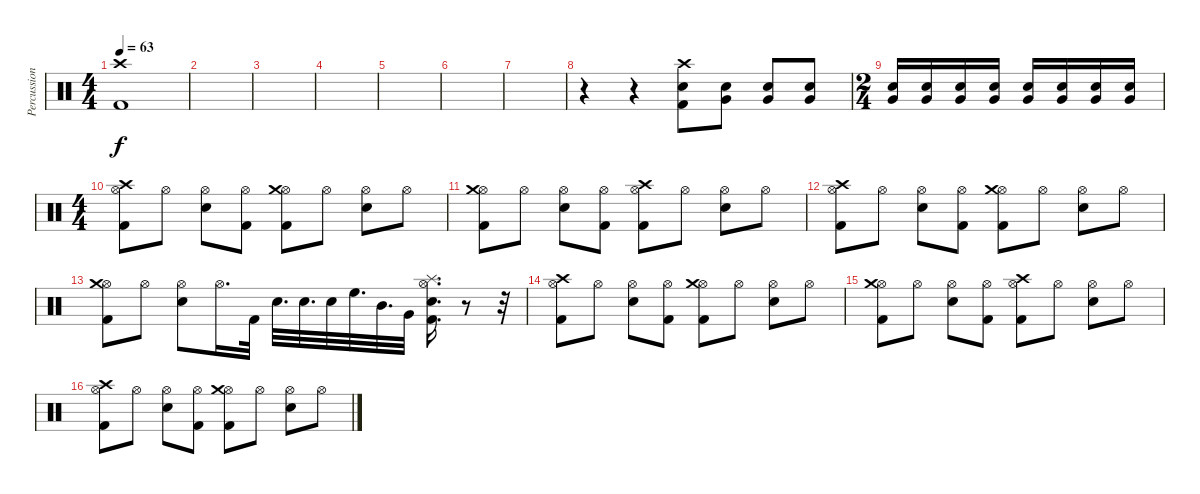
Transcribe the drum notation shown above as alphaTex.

\track ("Percussion" "Percussion") {instrument percussion}
\staff {score}
\articulation defaults
\ts (4 4)
\tempo 63
\clef neutral
\ks c
("Crash high (hit)" "Kick (hit) 2").1{dy f} |
|
|
|
|
|
|
r.4 r.4 ("Crash high (hit)" "Electric Snare (hit)" "Kick (hit) 2").8 ("Electric Snare (hit)" "Very Low Tom (hit)").8 ("Electric Snare (hit)" "Very Low Tom (hit)").8 ("Electric Snare (hit)" "Very Low Tom (hit)").8 |
\ts (2 4)
("Electric Snare (hit)" "Very Low Tom (hit)").16{volume 8} ("Electric Snare (hit)" "Very Low Tom (hit)").16{volume 16} ("Electric Snare (hit)" "Very Low Tom (hit)").16 ("Electric Snare (hit)" "Very Low Tom (hit)").16 ("Electric Snare (hit)" "Very Low Tom (hit)").16 ("Electric Snare (hit)" "Very Low Tom (hit)").16 ("Electric Snare (hit)" "Very Low Tom (hit)").16 ("Electric Snare (hit)" "Very Low Tom (hit)").16 |
\ts (4 4)
("Hi-Hat (open)" "Crash high (hit)" "Kick (hit) 2").8 "Hi-Hat (open)".8 ("Hi-Hat (open)" "Electric Snare (hit)").8 ("Hi-Hat (open)" "Kick (hit) 2").8 ("Hi-Hat (open)" "Crash medium (hit)" "Kick (hit) 2").8 "Hi-Hat (open)".8 ("Hi-Hat (open)" "Electric Snare (hit)").8 "Hi-Hat (open)".8 |
("Hi-Hat (open)" "Crash medium (hit)" "Kick (hit) 2").8 "Hi-Hat (open)".8 ("Hi-Hat (open)" "Electric Snare (hit)").8 ("Hi-Hat (open)" "Kick (hit) 2").8 ("Hi-Hat (open)" "Crash high (hit)" "Kick (hit) 2").8 "Hi-Hat (open)".8 ("Hi-Hat (open)" "Electric Snare (hit)").8 "Hi-Hat (open)".8 |
("Hi-Hat (open)" "Crash high (hit)" "Kick (hit) 2").8 "Hi-Hat (open)".8 ("Hi-Hat (open)" "Electric Snare (hit)").8 ("Hi-Hat (open)" "Kick (hit) 2").8 ("Hi-Hat (open)" "Crash medium (hit)" "Kick (hit) 2").8 "Hi-Hat (open)".8 ("Hi-Hat (open)" "Electric Snare (hit)").8 "Hi-Hat (open)".8 |
("Hi-Hat (open)" "Crash medium (hit)" "Kick (hit) 2").8 "Hi-Hat (open)".8 ("Hi-Hat (open)" "Electric Snare (hit)").8 "Hi-Hat (open)".16{d} "Kick (hit) 2".32 "Electric Snare (hit)".32{d} "Electric Snare (hit)".32{d} "Electric Snare (hit)".32 "High Floor Tom (hit)".32{d} "Mid Tom (hit)".32{d} "Very Low Tom (hit)".32 ("Hi-Hat (open)" "Electric Snare (hit)" "Splash (hit)" "Kick (hit) 2").16{d} r.8 r.32 |
("Hi-Hat (open)" "Crash high (hit)" "Kick (hit) 2").8 "Hi-Hat (open)".8 ("Hi-Hat (open)" "Electric Snare (hit)").8 ("Hi-Hat (open)" "Kick (hit) 2").8 ("Hi-Hat (open)" "Crash medium (hit)" "Kick (hit) 2").8 "Hi-Hat (open)".8 ("Hi-Hat (open)" "Electric Snare (hit)").8 "Hi-Hat (open)".8 |
("Hi-Hat (open)" "Crash medium (hit)" "Kick (hit) 2").8 "Hi-Hat (open)".8 ("Hi-Hat (open)" "Electric Snare (hit)").8 ("Hi-Hat (open)" "Kick (hit) 2").8 ("Hi-Hat (open)" "Crash high (hit)" "Kick (hit) 2").8 "Hi-Hat (open)".8 ("Hi-Hat (open)" "Electric Snare (hit)").8 "Hi-Hat (open)".8 |
("Hi-Hat (open)" "Crash high (hit)" "Kick (hit) 2").8 "Hi-Hat (open)".8 ("Hi-Hat (open)" "Electric Snare (hit)").8 ("Hi-Hat (open)" "Kick (hit) 2").8 ("Hi-Hat (open)" "Crash medium (hit)" "Kick (hit) 2").8 "Hi-Hat (open)".8 ("Hi-Hat (open)" "Electric Snare (hit)").8 "Hi-Hat (open)".8
